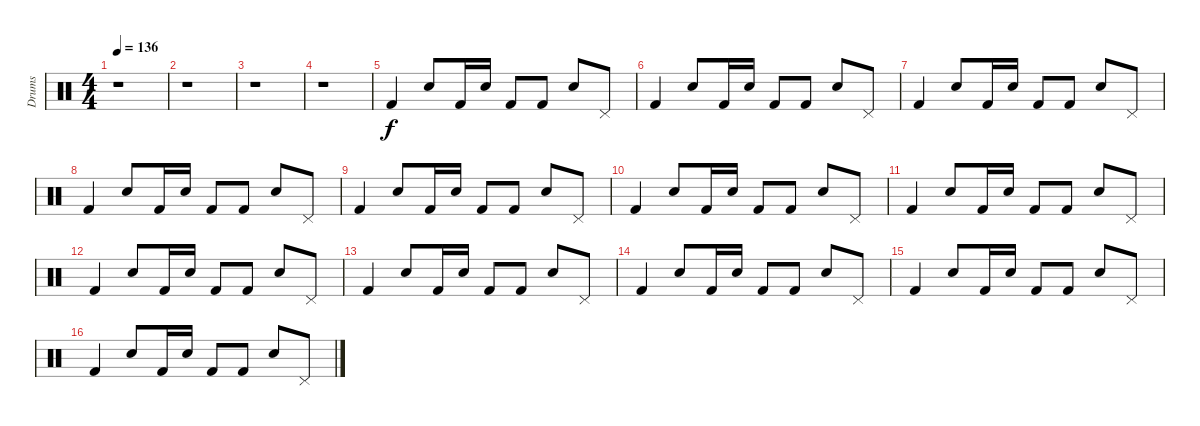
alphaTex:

\track ("Drums" "Drums") {instrument percussion}
\staff {score}
\articulation defaults
\ts (4 4)
\tempo 136
\clef neutral
\ks c
r.1{dy f} |
r.1 |
r.1 |
r.1 |
"Kick (hit) 2".4 "Snare (hit) 2".8 "Kick (hit) 2".16 "Snare (hit) 2".16 "Kick (hit) 2".8 "Kick (hit) 2".8 "Snare (hit) 2".8 "Pedal Hi-Hat (hit)".8 |
"Kick (hit) 2".4 "Snare (hit) 2".8 "Kick (hit) 2".16 "Snare (hit) 2".16 "Kick (hit) 2".8 "Kick (hit) 2".8 "Snare (hit) 2".8 "Pedal Hi-Hat (hit)".8 |
"Kick (hit) 2".4 "Snare (hit) 2".8 "Kick (hit) 2".16 "Snare (hit) 2".16 "Kick (hit) 2".8 "Kick (hit) 2".8 "Snare (hit) 2".8 "Pedal Hi-Hat (hit)".8 |
"Kick (hit) 2".4 "Snare (hit) 2".8 "Kick (hit) 2".16 "Snare (hit) 2".16 "Kick (hit) 2".8 "Kick (hit) 2".8 "Snare (hit) 2".8 "Pedal Hi-Hat (hit)".8 |
"Kick (hit) 2".4 "Snare (hit) 2".8 "Kick (hit) 2".16 "Snare (hit) 2".16 "Kick (hit) 2".8 "Kick (hit) 2".8 "Snare (hit) 2".8 "Pedal Hi-Hat (hit)".8 |
"Kick (hit) 2".4 "Snare (hit) 2".8 "Kick (hit) 2".16 "Snare (hit) 2".16 "Kick (hit) 2".8 "Kick (hit) 2".8 "Snare (hit) 2".8 "Pedal Hi-Hat (hit)".8 |
"Kick (hit) 2".4 "Snare (hit) 2".8 "Kick (hit) 2".16 "Snare (hit) 2".16 "Kick (hit) 2".8 "Kick (hit) 2".8 "Snare (hit) 2".8 "Pedal Hi-Hat (hit)".8 |
"Kick (hit) 2".4 "Snare (hit) 2".8 "Kick (hit) 2".16 "Snare (hit) 2".16 "Kick (hit) 2".8 "Kick (hit) 2".8 "Snare (hit) 2".8 "Pedal Hi-Hat (hit)".8 |
"Kick (hit) 2".4 "Snare (hit) 2".8 "Kick (hit) 2".16 "Snare (hit) 2".16 "Kick (hit) 2".8 "Kick (hit) 2".8 "Snare (hit) 2".8 "Pedal Hi-Hat (hit)".8 |
"Kick (hit) 2".4 "Snare (hit) 2".8 "Kick (hit) 2".16 "Snare (hit) 2".16 "Kick (hit) 2".8 "Kick (hit) 2".8 "Snare (hit) 2".8 "Pedal Hi-Hat (hit)".8 |
"Kick (hit) 2".4 "Snare (hit) 2".8 "Kick (hit) 2".16 "Snare (hit) 2".16 "Kick (hit) 2".8 "Kick (hit) 2".8 "Snare (hit) 2".8 "Pedal Hi-Hat (hit)".8 |
"Kick (hit) 2".4 "Snare (hit) 2".8 "Kick (hit) 2".16 "Snare (hit) 2".16 "Kick (hit) 2".8 "Kick (hit) 2".8 "Snare (hit) 2".8 "Pedal Hi-Hat (hit)".8
